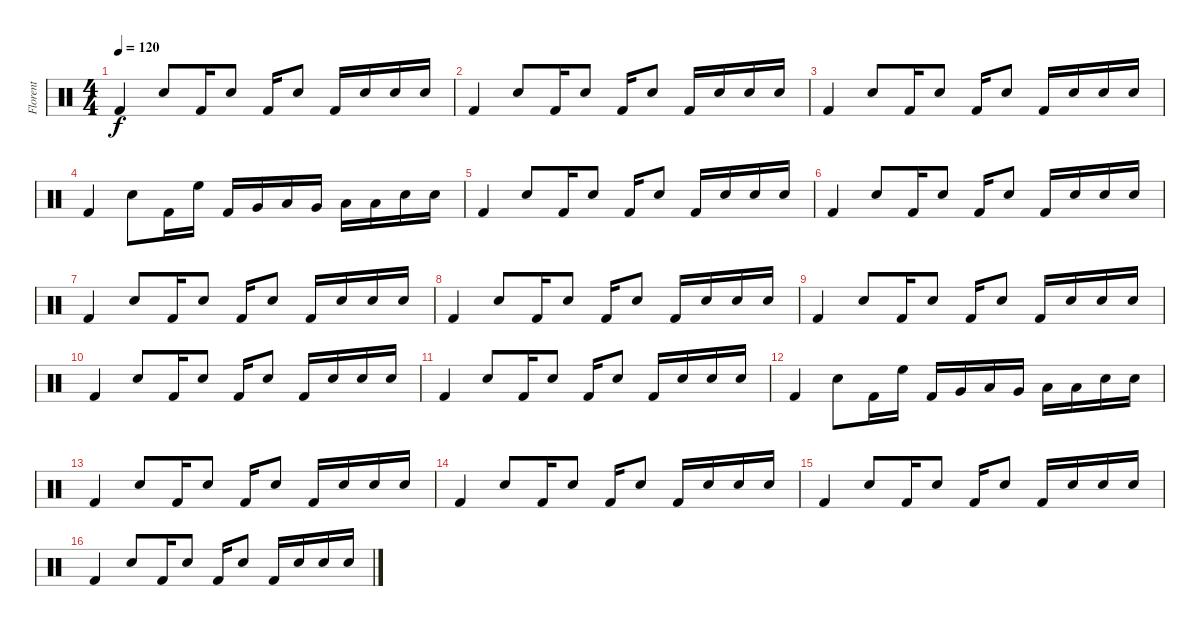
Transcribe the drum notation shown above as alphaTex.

\track ("Florent" "Florent") {instrument percussion}
\staff {score}
\articulation defaults
\ts (4 4)
\tempo 120
\clef neutral
\ks c "Kick (hit) 2".4{dy f} "Electric Snare (hit)".8 "Kick (hit) 2".16 "Electric Snare (hit)".8 "Kick (hit) 2".16 "Electric Snare (hit)".8 "Kick (hit) 2".16 "Electric Snare (hit)".16 "Electric Snare (hit)".16 "Electric Snare (hit)".16
|
"Kick (hit) 2".4 "Electric Snare (hit)".8 "Kick (hit) 2".16 "Electric Snare (hit)".8 "Kick (hit) 2".16 "Electric Snare (hit)".8 "Kick (hit) 2".16 "Electric Snare (hit)".16 "Electric Snare (hit)".16 "Electric Snare (hit)".16 |
"Kick (hit) 2".4 "Electric Snare (hit)".8 "Kick (hit) 2".16 "Electric Snare (hit)".8 "Kick (hit) 2".16 "Electric Snare (hit)".8 "Kick (hit) 2".16 "Electric Snare (hit)".16 "Electric Snare (hit)".16 "Electric Snare (hit)".16 |
"Kick (hit) 2".4 "Electric Snare (hit)".8 "Kick (hit) 2".16 "High Floor Tom (hit)".16 "Kick (hit) 2".16 "Very Low Tom (hit)".16 "Low Tom (hit)".16 "Very Low Tom (hit)".16 "Low Tom (hit)".16 "Low Tom (hit)".16 "Electric Snare (hit)".16 "Electric Snare (hit)".16 |
"Kick (hit) 2".4 "Electric Snare (hit)".8 "Kick (hit) 2".16 "Electric Snare (hit)".8 "Kick (hit) 2".16 "Electric Snare (hit)".8 "Kick (hit) 2".16 "Electric Snare (hit)".16 "Electric Snare (hit)".16 "Electric Snare (hit)".16 |
"Kick (hit) 2".4 "Electric Snare (hit)".8 "Kick (hit) 2".16 "Electric Snare (hit)".8 "Kick (hit) 2".16 "Electric Snare (hit)".8 "Kick (hit) 2".16 "Electric Snare (hit)".16 "Electric Snare (hit)".16 "Electric Snare (hit)".16 |
"Kick (hit) 2".4 "Electric Snare (hit)".8 "Kick (hit) 2".16 "Electric Snare (hit)".8 "Kick (hit) 2".16 "Electric Snare (hit)".8 "Kick (hit) 2".16 "Electric Snare (hit)".16 "Electric Snare (hit)".16 "Electric Snare (hit)".16 |
"Kick (hit) 2".4 "Electric Snare (hit)".8 "Kick (hit) 2".16 "Electric Snare (hit)".8 "Kick (hit) 2".16 "Electric Snare (hit)".8 "Kick (hit) 2".16 "Electric Snare (hit)".16 "Electric Snare (hit)".16 "Electric Snare (hit)".16 |
"Kick (hit) 2".4 "Electric Snare (hit)".8 "Kick (hit) 2".16 "Electric Snare (hit)".8 "Kick (hit) 2".16 "Electric Snare (hit)".8 "Kick (hit) 2".16 "Electric Snare (hit)".16 "Electric Snare (hit)".16 "Electric Snare (hit)".16 |
"Kick (hit) 2".4 "Electric Snare (hit)".8 "Kick (hit) 2".16 "Electric Snare (hit)".8 "Kick (hit) 2".16 "Electric Snare (hit)".8 "Kick (hit) 2".16 "Electric Snare (hit)".16 "Electric Snare (hit)".16 "Electric Snare (hit)".16 |
"Kick (hit) 2".4 "Electric Snare (hit)".8 "Kick (hit) 2".16 "Electric Snare (hit)".8 "Kick (hit) 2".16 "Electric Snare (hit)".8 "Kick (hit) 2".16 "Electric Snare (hit)".16 "Electric Snare (hit)".16 "Electric Snare (hit)".16 |
"Kick (hit) 2".4 "Electric Snare (hit)".8 "Kick (hit) 2".16 "High Floor Tom (hit)".16 "Kick (hit) 2".16 "Very Low Tom (hit)".16 "Low Tom (hit)".16 "Very Low Tom (hit)".16 "Low Tom (hit)".16 "Low Tom (hit)".16 "Electric Snare (hit)".16 "Electric Snare (hit)".16 |
"Kick (hit) 2".4 "Electric Snare (hit)".8 "Kick (hit) 2".16 "Electric Snare (hit)".8 "Kick (hit) 2".16 "Electric Snare (hit)".8 "Kick (hit) 2".16 "Electric Snare (hit)".16 "Electric Snare (hit)".16 "Electric Snare (hit)".16 |
"Kick (hit) 2".4 "Electric Snare (hit)".8 "Kick (hit) 2".16 "Electric Snare (hit)".8 "Kick (hit) 2".16 "Electric Snare (hit)".8 "Kick (hit) 2".16 "Electric Snare (hit)".16 "Electric Snare (hit)".16 "Electric Snare (hit)".16 |
"Kick (hit) 2".4 "Electric Snare (hit)".8 "Kick (hit) 2".16 "Electric Snare (hit)".8 "Kick (hit) 2".16 "Electric Snare (hit)".8 "Kick (hit) 2".16 "Electric Snare (hit)".16 "Electric Snare (hit)".16 "Electric Snare (hit)".16 |
"Kick (hit) 2".4 "Electric Snare (hit)".8 "Kick (hit) 2".16 "Electric Snare (hit)".8 "Kick (hit) 2".16 "Electric Snare (hit)".8 "Kick (hit) 2".16 "Electric Snare (hit)".16 "Electric Snare (hit)".16 "Electric Snare (hit)".16
